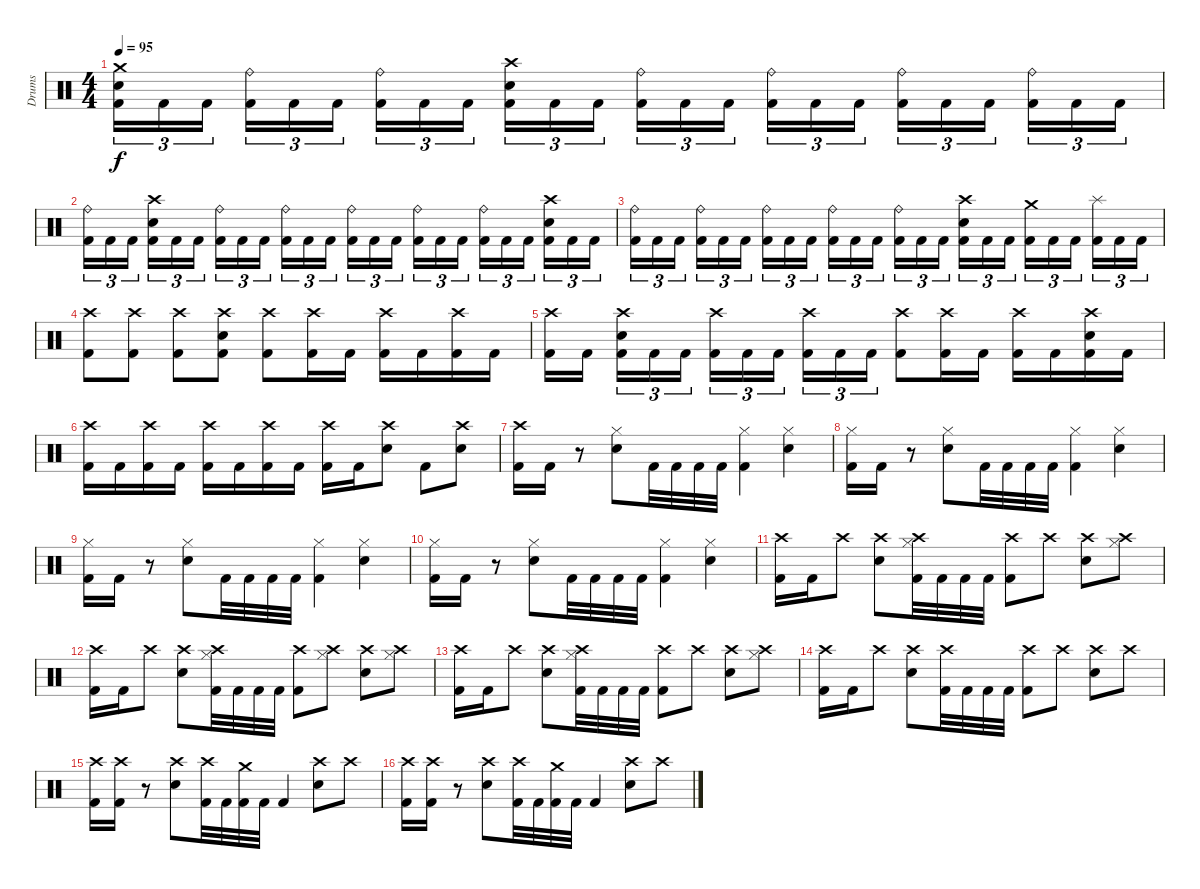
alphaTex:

\track ("Drums" "Drums") {instrument percussion}
\staff {score}
\articulation defaults
\ts (4 4)
\tempo 95
\clef neutral
\ks c
("Crash medium (hit)" "Electric Snare (hit)" "Kick (hit) 2").16{tu (3 2) dy f} "Kick (hit) 2".16{tu (3 2)} "Kick (hit) 2".16{tu (3 2)} ("Ride (bell)" "Kick (hit) 2").16{tu (3 2)} "Kick (hit) 2".16{tu (3 2)} "Kick (hit) 2".16{tu (3 2)} ("Ride (bell)" "Kick (hit) 2").16{tu (3 2)} "Kick (hit) 2".16{tu (3 2)} "Kick (hit) 2".16{tu (3 2)} ("Crash high (hit)" "Electric Snare (hit)" "Kick (hit) 2").16{tu (3 2)} "Kick (hit) 2".16{tu (3 2)} "Kick (hit) 2".16{tu (3 2)} ("Ride (bell)" "Kick (hit) 2").16{tu (3 2)} "Kick (hit) 2".16{tu (3 2)} "Kick (hit) 2".16{tu (3 2)} ("Ride (bell)" "Kick (hit) 2").16{tu (3 2)} "Kick (hit) 2".16{tu (3 2)} "Kick (hit) 2".16{tu (3 2)} ("Ride (bell)" "Kick (hit) 2").16{tu (3 2)} "Kick (hit) 2".16{tu (3 2)} "Kick (hit) 2".16{tu (3 2)} ("Ride (bell)" "Kick (hit) 2").16{tu (3 2)} "Kick (hit) 2".16{tu (3 2)} "Kick (hit) 2".16{tu (3 2)} |
("Ride (bell)" "Kick (hit) 2").16{tu (3 2)} "Kick (hit) 2".16{tu (3 2)} "Kick (hit) 2".16{tu (3 2)} ("Crash high (hit)" "Electric Snare (hit)" "Kick (hit) 2").16{tu (3 2)} "Kick (hit) 2".16{tu (3 2)} "Kick (hit) 2".16{tu (3 2)} ("Ride (bell)" "Kick (hit) 2").16{tu (3 2)} "Kick (hit) 2".16{tu (3 2)} "Kick (hit) 2".16{tu (3 2)} ("Ride (bell)" "Kick (hit) 2").16{tu (3 2)} "Kick (hit) 2".16{tu (3 2)} "Kick (hit) 2".16{tu (3 2)} ("Ride (bell)" "Kick (hit) 2").16{tu (3 2)} "Kick (hit) 2".16{tu (3 2)} "Kick (hit) 2".16{tu (3 2)} ("Ride (bell)" "Kick (hit) 2").16{tu (3 2)} "Kick (hit) 2".16{tu (3 2)} "Kick (hit) 2".16{tu (3 2)} ("Ride (bell)" "Kick (hit) 2").16{tu (3 2)} "Kick (hit) 2".16{tu (3 2)} "Kick (hit) 2".16{tu (3 2)} ("Crash high (hit)" "Electric Snare (hit)" "Kick (hit) 2").16{tu (3 2)} "Kick (hit) 2".16{tu (3 2)} "Kick (hit) 2".16{tu (3 2)} |
("Ride (bell)" "Kick (hit) 2").16{tu (3 2)} "Kick (hit) 2".16{tu (3 2)} "Kick (hit) 2".16{tu (3 2)} ("Ride (bell)" "Kick (hit) 2").16{tu (3 2)} "Kick (hit) 2".16{tu (3 2)} "Kick (hit) 2".16{tu (3 2)} ("Ride (bell)" "Kick (hit) 2").16{tu (3 2)} "Kick (hit) 2".16{tu (3 2)} "Kick (hit) 2".16{tu (3 2)} ("Ride (bell)" "Kick (hit) 2").16{tu (3 2)} "Kick (hit) 2".16{tu (3 2)} "Kick (hit) 2".16{tu (3 2)} ("Ride (bell)" "Kick (hit) 2").16{tu (3 2)} "Kick (hit) 2".16{tu (3 2)} "Kick (hit) 2".16{tu (3 2)} ("Crash high (hit)" "Electric Snare (hit)" "Kick (hit) 2").16{tu (3 2)} "Kick (hit) 2".16{tu (3 2)} "Kick (hit) 2".16{tu (3 2)} ("Crash medium (hit)" "Kick (hit) 2").16{tu (3 2)} "Kick (hit) 2".16{tu (3 2)} "Kick (hit) 2".16{tu (3 2)} ("Splash (hit)" "Kick (hit) 2").16{tu (3 2)} "Kick (hit) 2".16{tu (3 2)} "Kick (hit) 2".16{tu (3 2)} |
("Crash high (hit)" "Kick (hit) 2").8 ("Crash high (hit)" "Kick (hit) 2").8 ("Crash high (hit)" "Kick (hit) 2").8 ("Crash high (hit)" "Electric Snare (hit)" "Kick (hit) 2").8 ("Crash high (hit)" "Kick (hit) 2").8 ("Crash high (hit)" "Kick (hit) 2").16 "Kick (hit) 2".16 ("Crash high (hit)" "Kick (hit) 2").16 "Kick (hit) 2".16 ("Crash high (hit)" "Kick (hit) 2").16 "Kick (hit) 2".16 |
("Crash high (hit)" "Kick (hit) 2").16 "Kick (hit) 2".16 ("Crash high (hit)" "Electric Snare (hit)" "Kick (hit) 2").16{tu (3 2)} "Kick (hit) 2".16{tu (3 2)} "Kick (hit) 2".16{tu (3 2)} ("Crash high (hit)" "Kick (hit) 2").16{tu (3 2)} "Kick (hit) 2".16{tu (3 2)} "Kick (hit) 2".16{tu (3 2)} ("Crash high (hit)" "Kick (hit) 2").16{tu (3 2)} "Kick (hit) 2".16{tu (3 2)} "Kick (hit) 2".16{tu (3 2)} ("Crash high (hit)" "Kick (hit) 2").8 ("Crash high (hit)" "Kick (hit) 2").16 "Kick (hit) 2".16 ("Crash high (hit)" "Kick (hit) 2").16 "Kick (hit) 2".16 ("Crash high (hit)" "Electric Snare (hit)" "Kick (hit) 2").16 "Kick (hit) 2".16 |
("Crash high (hit)" "Kick (hit) 2").16 "Kick (hit) 2".16 ("Crash high (hit)" "Kick (hit) 2").16 "Kick (hit) 2".16 ("Crash high (hit)" "Kick (hit) 2").16 "Kick (hit) 2".16 ("Crash high (hit)" "Kick (hit) 2").16 "Kick (hit) 2".16 ("Crash high (hit)" "Kick (hit) 2").16 "Kick (hit) 2".16 ("Crash high (hit)" "Electric Snare (hit)").8 "Kick (hit) 2".8 ("Crash high (hit)" "Electric Snare (hit)").8 |
("Crash high (hit)" "Kick (hit) 2").16 "Kick (hit) 2".16 r.8 ("Hi-Hat (closed)" "Electric Snare (hit)").8 "Kick (hit) 2".32 "Kick (hit) 2".32 "Kick (hit) 2".32 "Kick (hit) 2".32 ("Hi-Hat (closed)" "Kick (hit) 2").4 ("Hi-Hat (closed)" "Electric Snare (hit)").4 |
("Hi-Hat (closed)" "Kick (hit) 2").16 "Kick (hit) 2".16 r.8 ("Hi-Hat (closed)" "Electric Snare (hit)").8 "Kick (hit) 2".32 "Kick (hit) 2".32 "Kick (hit) 2".32 "Kick (hit) 2".32 ("Hi-Hat (closed)" "Kick (hit) 2").4 ("Hi-Hat (closed)" "Electric Snare (hit)").4 |
("Hi-Hat (closed)" "Kick (hit) 2").16 "Kick (hit) 2".16 r.8 ("Hi-Hat (closed)" "Electric Snare (hit)").8 "Kick (hit) 2".32 "Kick (hit) 2".32 "Kick (hit) 2".32 "Kick (hit) 2".32 ("Hi-Hat (closed)" "Kick (hit) 2").4 ("Hi-Hat (closed)" "Electric Snare (hit)").4 |
("Hi-Hat (closed)" "Kick (hit) 2").16 "Kick (hit) 2".16 r.8 ("Hi-Hat (closed)" "Electric Snare (hit)").8 "Kick (hit) 2".32 "Kick (hit) 2".32 "Kick (hit) 2".32 "Kick (hit) 2".32 ("Hi-Hat (closed)" "Kick (hit) 2").4 ("Hi-Hat (closed)" "Electric Snare (hit)").4 |
("Crash high (hit)" "Kick (hit) 2").16 "Kick (hit) 2".16 "Crash high (hit)".8 ("Crash high (hit)" "Electric Snare (hit)").8 ("Crash high (hit)" "Hi-Hat (closed)" "Kick (hit) 2").32 "Kick (hit) 2".32 "Kick (hit) 2".32 "Kick (hit) 2".32 ("Crash high (hit)" "Kick (hit) 2").8 "Crash high (hit)".8 ("Crash high (hit)" "Electric Snare (hit)").8 ("Crash high (hit)" "Hi-Hat (closed)").8 |
("Crash high (hit)" "Kick (hit) 2").16 "Kick (hit) 2".16 "Crash high (hit)".8 ("Crash high (hit)" "Electric Snare (hit)").8 ("Crash high (hit)" "Hi-Hat (closed)" "Kick (hit) 2").32 "Kick (hit) 2".32 "Kick (hit) 2".32 "Kick (hit) 2".32 ("Crash high (hit)" "Kick (hit) 2").8 ("Crash high (hit)" "Hi-Hat (closed)").8 ("Crash high (hit)" "Electric Snare (hit)").8 ("Crash high (hit)" "Hi-Hat (closed)").8 |
("Crash high (hit)" "Kick (hit) 2").16 "Kick (hit) 2".16 "Crash high (hit)".8 ("Crash high (hit)" "Electric Snare (hit)").8 ("Crash high (hit)" "Hi-Hat (closed)" "Kick (hit) 2").32 "Kick (hit) 2".32 "Kick (hit) 2".32 "Kick (hit) 2".32 ("Crash high (hit)" "Kick (hit) 2").8 "Crash high (hit)".8 ("Crash high (hit)" "Electric Snare (hit)").8 ("Crash high (hit)" "Hi-Hat (closed)").8 |
("Crash high (hit)" "Kick (hit) 2").16 "Kick (hit) 2".16 "Crash high (hit)".8 ("Crash high (hit)" "Electric Snare (hit)").8 ("Crash high (hit)" "Kick (hit) 2").32 "Kick (hit) 2".32 "Kick (hit) 2".32 "Kick (hit) 2".32 ("Crash high (hit)" "Kick (hit) 2").8 "Crash high (hit)".8 ("Crash high (hit)" "Electric Snare (hit)").8 "Crash high (hit)".8 |
("Crash high (hit)" "Kick (hit) 2").16 ("Crash high (hit)" "Kick (hit) 2").16 r.8 ("Crash high (hit)" "Electric Snare (hit)").8 ("Crash high (hit)" "Kick (hit) 2").32 "Kick (hit) 2".32 ("Crash medium (hit)" "Kick (hit) 2").32 "Kick (hit) 2".32 "Kick (hit) 2".4 ("Crash high (hit)" "Electric Snare (hit)").8 "Crash high (hit)".8 |
("Crash high (hit)" "Kick (hit) 2").16 ("Crash high (hit)" "Kick (hit) 2").16 r.8 ("Crash high (hit)" "Electric Snare (hit)").8 ("Crash high (hit)" "Kick (hit) 2").32 "Kick (hit) 2".32 ("Crash medium (hit)" "Kick (hit) 2").32 "Kick (hit) 2".32 "Kick (hit) 2".4 ("Crash high (hit)" "Electric Snare (hit)").8 "Crash high (hit)".8
